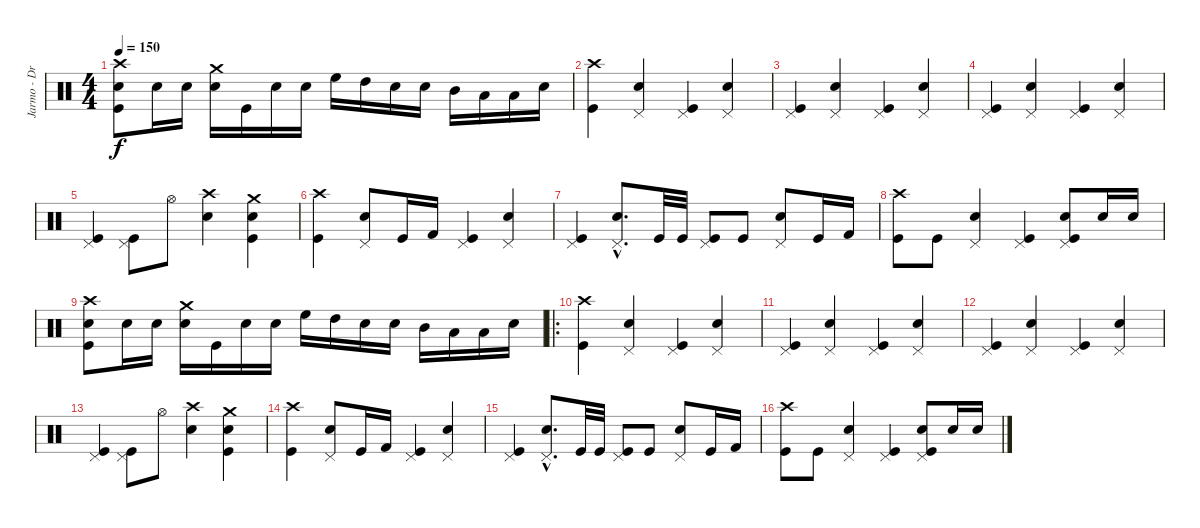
\track ("Jarmo - Drums/Vodka" "Jarmo - Dr") {instrument percussion}
\staff {score}
\articulation defaults
\ts (4 4)
\tempo 150
\clef neutral
\ks c
("Kick (hit)" "Electric Snare (hit)" "Crash high (hit)").8{dy f} "Electric Snare (hit)".16 "Electric Snare (hit)".16 ("Electric Snare (hit)" "Crash medium (hit)").16 "Kick (hit)".16 "Electric Snare (hit)".16 "Electric Snare (hit)".16 "High Floor Tom (hit)".16 "High Tom (hit)".16 "Electric Snare (hit)".16 "Electric Snare (hit)".16 "Mid Tom (hit)".16 "Low Tom (hit)".16 "Low Tom (hit)".16 "Electric Snare (hit)".16 |
("Kick (hit)" "Crash high (hit)").4 ("Electric Snare (hit)" "Pedal Hi-Hat (hit)").4 ("Kick (hit)" "Pedal Hi-Hat (hit)").4 ("Electric Snare (hit)" "Pedal Hi-Hat (hit)").4 |
("Kick (hit)" "Pedal Hi-Hat (hit)").4 ("Electric Snare (hit)" "Pedal Hi-Hat (hit)").4 ("Kick (hit)" "Pedal Hi-Hat (hit)").4 ("Electric Snare (hit)" "Pedal Hi-Hat (hit)").4 |
("Kick (hit)" "Pedal Hi-Hat (hit)").4 ("Electric Snare (hit)" "Pedal Hi-Hat (hit)").4 ("Kick (hit)" "Pedal Hi-Hat (hit)").4 ("Electric Snare (hit)" "Pedal Hi-Hat (hit)").4 |
("Kick (hit)" "Pedal Hi-Hat (hit)").4 ("Kick (hit)" "Pedal Hi-Hat (hit)").8 "Hi-Hat (open)".8 ("Electric Snare (hit)" "Crash high (hit)").4 ("Kick (hit)" "Electric Snare (hit)" "Crash medium (hit)").4 |
("Kick (hit)" "Crash high (hit)").4 ("Electric Snare (hit)" "Pedal Hi-Hat (hit)").8 "Kick (hit)".16 "Kick (hit) 2".16 ("Kick (hit)" "Pedal Hi-Hat (hit)").4 ("Electric Snare (hit)" "Pedal Hi-Hat (hit)").4 |
("Kick (hit)" "Pedal Hi-Hat (hit)").4 ("Electric Snare (hit)"{hac} "Pedal Hi-Hat (hit)"{hac}).8{d} "Kick (hit)".32 "Kick (hit)".32 ("Kick (hit)" "Pedal Hi-Hat (hit)").8 "Kick (hit)".8 ("Electric Snare (hit)" "Pedal Hi-Hat (hit)").8 "Kick (hit)".16 "Kick (hit) 2".16 |
("Kick (hit)" "Crash high (hit)").8 "Kick (hit)".8 ("Electric Snare (hit)" "Pedal Hi-Hat (hit)").4 ("Kick (hit)" "Pedal Hi-Hat (hit)").4 ("Kick (hit)" "Electric Snare (hit)" "Pedal Hi-Hat (hit)").8 "Electric Snare (hit)".16 "Electric Snare (hit)".16 |
("Kick (hit)" "Electric Snare (hit)" "Crash high (hit)").8 "Electric Snare (hit)".16 "Electric Snare (hit)".16 ("Electric Snare (hit)" "Crash medium (hit)").16 "Kick (hit)".16 "Electric Snare (hit)".16 "Electric Snare (hit)".16 "High Floor Tom (hit)".16 "High Tom (hit)".16 "Electric Snare (hit)".16 "Electric Snare (hit)".16 "Mid Tom (hit)".16 "Low Tom (hit)".16 "Low Tom (hit)".16 "Electric Snare (hit)".16 |
\ro
("Kick (hit)" "Crash high (hit)").4 ("Electric Snare (hit)" "Pedal Hi-Hat (hit)").4 ("Kick (hit)" "Pedal Hi-Hat (hit)").4 ("Electric Snare (hit)" "Pedal Hi-Hat (hit)").4 |
("Kick (hit)" "Pedal Hi-Hat (hit)").4 ("Electric Snare (hit)" "Pedal Hi-Hat (hit)").4 ("Kick (hit)" "Pedal Hi-Hat (hit)").4 ("Electric Snare (hit)" "Pedal Hi-Hat (hit)").4 |
("Kick (hit)" "Pedal Hi-Hat (hit)").4 ("Electric Snare (hit)" "Pedal Hi-Hat (hit)").4 ("Kick (hit)" "Pedal Hi-Hat (hit)").4 ("Electric Snare (hit)" "Pedal Hi-Hat (hit)").4 |
("Kick (hit)" "Pedal Hi-Hat (hit)").4 ("Kick (hit)" "Pedal Hi-Hat (hit)").8 "Hi-Hat (open)".8 ("Electric Snare (hit)" "Crash high (hit)").4 ("Kick (hit)" "Electric Snare (hit)" "Crash medium (hit)").4 |
("Kick (hit)" "Crash high (hit)").4 ("Electric Snare (hit)" "Pedal Hi-Hat (hit)").8 "Kick (hit)".16 "Kick (hit) 2".16 ("Kick (hit)" "Pedal Hi-Hat (hit)").4 ("Electric Snare (hit)" "Pedal Hi-Hat (hit)").4 |
("Kick (hit)" "Pedal Hi-Hat (hit)").4 ("Electric Snare (hit)"{hac} "Pedal Hi-Hat (hit)"{hac}).8{d} "Kick (hit)".32 "Kick (hit)".32 ("Kick (hit)" "Pedal Hi-Hat (hit)").8 "Kick (hit)".8 ("Electric Snare (hit)" "Pedal Hi-Hat (hit)").8 "Kick (hit)".16 "Kick (hit) 2".16 |
("Kick (hit)" "Crash high (hit)").8 "Kick (hit)".8 ("Electric Snare (hit)" "Pedal Hi-Hat (hit)").4 ("Kick (hit)" "Pedal Hi-Hat (hit)").4 ("Kick (hit)" "Electric Snare (hit)" "Pedal Hi-Hat (hit)").8 "Electric Snare (hit)".16 "Electric Snare (hit)".16
